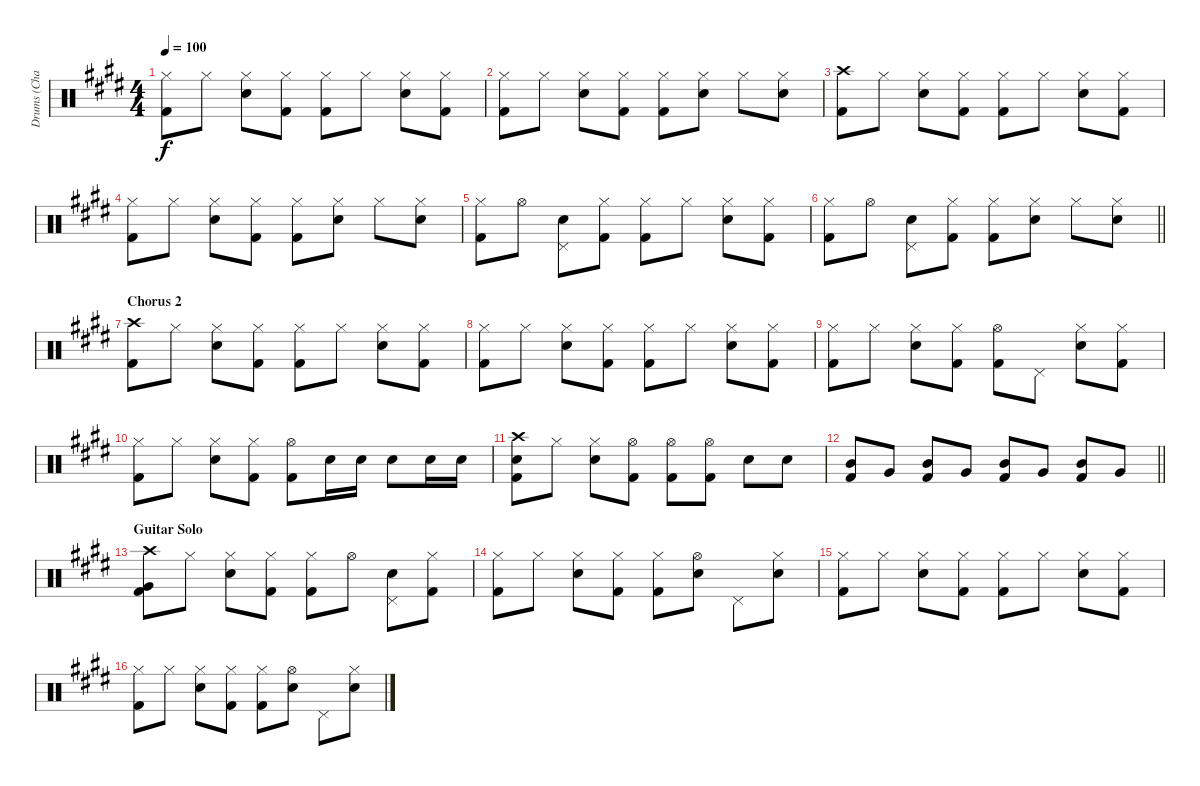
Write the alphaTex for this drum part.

\track ("Drums (Charlie)" "Drums (Cha") {instrument percussion}
\staff {score}
\articulation defaults
\ts (4 4)
\tempo 100
\clef neutral
\ks e
("Hi-Hat (closed)" "Kick (hit) 2").8{dy f} "Hi-Hat (closed)".8 ("Hi-Hat (closed)" "Snare (hit) 2").8 ("Hi-Hat (closed)" "Kick (hit) 2").8 ("Hi-Hat (closed)" "Kick (hit) 2").8 "Hi-Hat (closed)".8 ("Hi-Hat (closed)" "Snare (hit) 2").8 ("Hi-Hat (closed)" "Kick (hit) 2").8 |
\ks c#minor
("Hi-Hat (closed)" "Kick (hit) 2").8 "Hi-Hat (closed)".8 ("Hi-Hat (closed)" "Snare (hit) 2").8 ("Hi-Hat (closed)" "Kick (hit) 2").8 ("Hi-Hat (closed)" "Kick (hit) 2").8 ("Hi-Hat (closed)" "Snare (hit) 2").8 "Hi-Hat (closed)".8 ("Hi-Hat (closed)" "Snare (hit) 2").8 |
\ks e
("Crash high (hit)" "Kick (hit) 2").8 "Hi-Hat (closed)".8 ("Hi-Hat (closed)" "Snare (hit) 2").8 ("Hi-Hat (closed)" "Kick (hit) 2").8 ("Hi-Hat (closed)" "Kick (hit) 2").8 "Hi-Hat (closed)".8 ("Hi-Hat (closed)" "Snare (hit) 2").8 ("Hi-Hat (closed)" "Kick (hit) 2").8 |
\ks c#minor
("Hi-Hat (closed)" "Kick (hit) 2").8 "Hi-Hat (closed)".8 ("Hi-Hat (closed)" "Snare (hit) 2").8 ("Hi-Hat (closed)" "Kick (hit) 2").8 ("Hi-Hat (closed)" "Kick (hit) 2").8 ("Hi-Hat (closed)" "Snare (hit) 2").8 "Hi-Hat (closed)".8 ("Hi-Hat (closed)" "Snare (hit) 2").8 |
\ks e
("Hi-Hat (closed)" "Kick (hit) 2").8 "Hi-Hat (open)".8 ("Pedal Hi-Hat (hit)" "Snare (hit) 2").8 ("Hi-Hat (closed)" "Kick (hit) 2").8 ("Hi-Hat (closed)" "Kick (hit) 2").8 "Hi-Hat (closed)".8 ("Hi-Hat (closed)" "Snare (hit) 2").8 ("Hi-Hat (closed)" "Kick (hit) 2").8 |
\barLineRight lightlight
\ks c#minor
("Hi-Hat (closed)" "Kick (hit) 2").8 "Hi-Hat (open)".8 ("Pedal Hi-Hat (hit)" "Snare (hit) 2").8 ("Hi-Hat (closed)" "Kick (hit) 2").8 ("Hi-Hat (closed)" "Kick (hit) 2").8 ("Hi-Hat (closed)" "Snare (hit) 2").8 "Hi-Hat (closed)".8 ("Hi-Hat (closed)" "Snare (hit) 2").8 |
\section ("" "Chorus 2")
\ks e
("Crash high (hit)" "Kick (hit) 2").8 "Hi-Hat (closed)".8 ("Hi-Hat (closed)" "Snare (hit) 2").8 ("Hi-Hat (closed)" "Kick (hit) 2").8 ("Hi-Hat (closed)" "Kick (hit) 2").8 "Hi-Hat (closed)".8 ("Hi-Hat (closed)" "Snare (hit) 2").8 ("Hi-Hat (closed)" "Kick (hit) 2").8 |
\ks c#minor
("Hi-Hat (closed)" "Kick (hit) 2").8 "Hi-Hat (closed)".8 ("Hi-Hat (closed)" "Snare (hit) 2").8 ("Hi-Hat (closed)" "Kick (hit) 2").8 ("Hi-Hat (closed)" "Kick (hit) 2").8 "Hi-Hat (closed)".8 ("Hi-Hat (closed)" "Snare (hit) 2").8 ("Hi-Hat (closed)" "Kick (hit) 2").8 |
\ks e
("Hi-Hat (closed)" "Kick (hit) 2").8 "Hi-Hat (closed)".8 ("Hi-Hat (closed)" "Snare (hit) 2").8 ("Hi-Hat (closed)" "Kick (hit) 2").8 ("Hi-Hat (open)" "Kick (hit) 2").8 "Pedal Hi-Hat (hit)".8 ("Hi-Hat (closed)" "Snare (hit) 2").8 ("Hi-Hat (closed)" "Kick (hit) 2").8 |
\ks c#minor
("Hi-Hat (closed)" "Kick (hit) 2").8 "Hi-Hat (closed)".8 ("Hi-Hat (closed)" "Snare (hit) 2").8 ("Hi-Hat (closed)" "Kick (hit) 2").8 ("Hi-Hat (open)" "Kick (hit) 2").8 "Snare (hit) 2".16 "Snare (hit) 2".16 "Snare (hit) 2".8 "Snare (hit) 2".16 "Snare (hit) 2".16 |
("Crash high (hit)" "Snare (hit) 2" "Kick (hit) 2").8 "Hi-Hat (closed)".8 ("Hi-Hat (closed)" "Snare (hit) 2").8 ("Hi-Hat (open)" "Kick (hit) 2").8 ("Hi-Hat (open)" "Kick (hit) 2").8 ("Hi-Hat (open)" "Kick (hit) 2").8 "Snare (hit) 2".8 "Snare (hit) 2".8 |
\barLineRight lightlight
\ks e
("Mid Tom (hit)" "Kick (hit) 2").8 "Very Low Tom (hit)".8 ("Mid Tom (hit)" "Kick (hit) 2").8 "Very Low Tom (hit)".8 ("Mid Tom (hit)" "Kick (hit) 2").8 "Very Low Tom (hit)".8 ("Mid Tom (hit)" "Kick (hit) 2").8 "Very Low Tom (hit)".8 |
\section ("" "Guitar Solo")
\ks c#minor
("Crash high (hit)" "Very Low Tom (hit)" "Kick (hit) 2").8 "Hi-Hat (closed)".8 ("Hi-Hat (closed)" "Snare (hit) 2").8 ("Hi-Hat (closed)" "Kick (hit) 2").8 ("Hi-Hat (closed)" "Kick (hit) 2").8 "Hi-Hat (open)".8 ("Pedal Hi-Hat (hit)" "Snare (hit) 2").8 ("Hi-Hat (closed)" "Kick (hit) 2").8 |
("Hi-Hat (closed)" "Kick (hit) 2").8 "Hi-Hat (closed)".8 ("Hi-Hat (closed)" "Snare (hit) 2").8 ("Hi-Hat (closed)" "Kick (hit) 2").8 ("Hi-Hat (closed)" "Kick (hit) 2").8 ("Hi-Hat (open)" "Snare (hit) 2").8 "Pedal Hi-Hat (hit)".8 ("Hi-Hat (closed)" "Snare (hit) 2").8 |
("Hi-Hat (closed)" "Kick (hit) 2").8 "Hi-Hat (closed)".8 ("Hi-Hat (closed)" "Snare (hit) 2").8 ("Hi-Hat (closed)" "Kick (hit) 2").8 ("Hi-Hat (closed)" "Kick (hit) 2").8 "Hi-Hat (closed)".8 ("Hi-Hat (closed)" "Snare (hit) 2").8 ("Hi-Hat (closed)" "Kick (hit) 2").8 |
("Hi-Hat (closed)" "Kick (hit) 2").8 "Hi-Hat (closed)".8 ("Hi-Hat (closed)" "Snare (hit) 2").8 ("Hi-Hat (closed)" "Kick (hit) 2").8 ("Hi-Hat (closed)" "Kick (hit) 2").8 ("Hi-Hat (open)" "Snare (hit) 2").8 "Pedal Hi-Hat (hit)".8 ("Hi-Hat (closed)" "Snare (hit) 2").8
